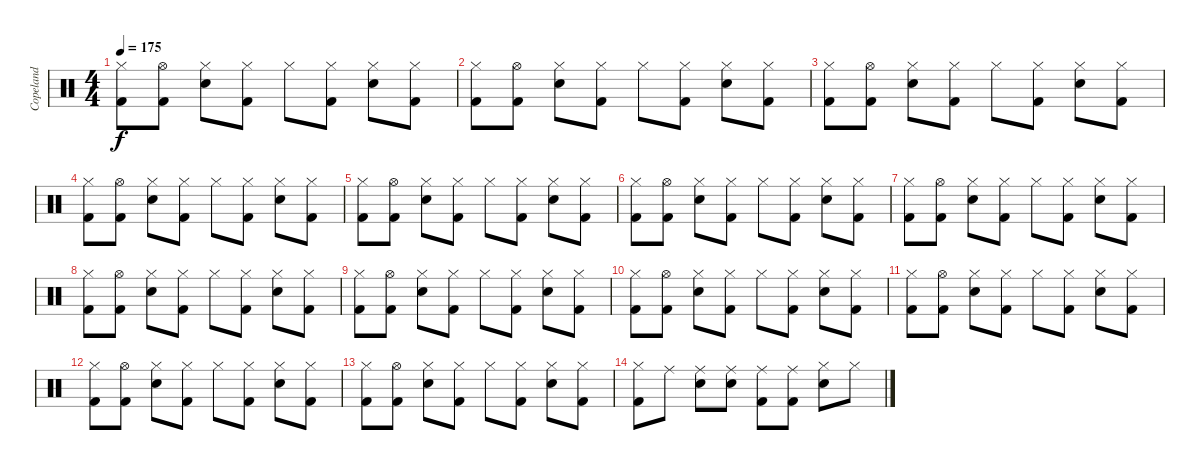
\track ("Copeland" "Copeland") {instrument percussion}
\staff {score}
\articulation defaults
\ts (4 4)
\tempo 175
\clef neutral
\ks c
("Hi-Hat (closed)" "Kick (hit) 2").8{dy f} ("Hi-Hat (open)" "Kick (hit) 2").8 ("Hi-Hat (closed)" "Snare (hit) 2").8 ("Hi-Hat (closed)" "Kick (hit) 2").8 "Hi-Hat (closed)".8 ("Hi-Hat (closed)" "Kick (hit) 2").8 ("Hi-Hat (closed)" "Snare (hit) 2").8 ("Hi-Hat (closed)" "Kick (hit) 2").8 |
("Hi-Hat (closed)" "Kick (hit) 2").8 ("Hi-Hat (open)" "Kick (hit) 2").8 ("Hi-Hat (closed)" "Snare (hit) 2").8 ("Hi-Hat (closed)" "Kick (hit) 2").8 "Hi-Hat (closed)".8 ("Hi-Hat (closed)" "Kick (hit) 2").8 ("Hi-Hat (closed)" "Snare (hit) 2").8 ("Hi-Hat (closed)" "Kick (hit) 2").8 |
("Hi-Hat (closed)" "Kick (hit) 2").8 ("Hi-Hat (open)" "Kick (hit) 2").8 ("Hi-Hat (closed)" "Snare (hit) 2").8 ("Hi-Hat (closed)" "Kick (hit) 2").8 "Hi-Hat (closed)".8 ("Hi-Hat (closed)" "Kick (hit) 2").8 ("Hi-Hat (closed)" "Snare (hit) 2").8 ("Hi-Hat (closed)" "Kick (hit) 2").8 |
("Hi-Hat (closed)" "Kick (hit) 2").8 ("Hi-Hat (open)" "Kick (hit) 2").8 ("Hi-Hat (closed)" "Snare (hit) 2").8 ("Hi-Hat (closed)" "Kick (hit) 2").8 "Hi-Hat (closed)".8 ("Hi-Hat (closed)" "Kick (hit) 2").8 ("Hi-Hat (closed)" "Snare (hit) 2").8 ("Hi-Hat (closed)" "Kick (hit) 2").8 |
("Hi-Hat (closed)" "Kick (hit) 2").8 ("Hi-Hat (open)" "Kick (hit) 2").8 ("Hi-Hat (closed)" "Snare (hit) 2").8 ("Hi-Hat (closed)" "Kick (hit) 2").8 "Hi-Hat (closed)".8 ("Hi-Hat (closed)" "Kick (hit) 2").8 ("Hi-Hat (closed)" "Snare (hit) 2").8 ("Hi-Hat (closed)" "Kick (hit) 2").8 |
("Hi-Hat (closed)" "Kick (hit) 2").8 ("Hi-Hat (open)" "Kick (hit) 2").8 ("Hi-Hat (closed)" "Snare (hit) 2").8 ("Hi-Hat (closed)" "Kick (hit) 2").8 "Hi-Hat (closed)".8 ("Hi-Hat (closed)" "Kick (hit) 2").8 ("Hi-Hat (closed)" "Snare (hit) 2").8 ("Hi-Hat (closed)" "Kick (hit) 2").8 |
("Hi-Hat (closed)" "Kick (hit) 2").8 ("Hi-Hat (open)" "Kick (hit) 2").8 ("Hi-Hat (closed)" "Snare (hit) 2").8 ("Hi-Hat (closed)" "Kick (hit) 2").8 "Hi-Hat (closed)".8 ("Hi-Hat (closed)" "Kick (hit) 2").8 ("Hi-Hat (closed)" "Snare (hit) 2").8 ("Hi-Hat (closed)" "Kick (hit) 2").8 |
("Hi-Hat (closed)" "Kick (hit) 2").8 ("Hi-Hat (open)" "Kick (hit) 2").8 ("Hi-Hat (closed)" "Snare (hit) 2").8 ("Hi-Hat (closed)" "Kick (hit) 2").8 "Hi-Hat (closed)".8 ("Hi-Hat (closed)" "Kick (hit) 2").8 ("Hi-Hat (closed)" "Snare (hit) 2").8 ("Hi-Hat (closed)" "Kick (hit) 2").8 |
("Hi-Hat (closed)" "Kick (hit) 2").8 ("Hi-Hat (open)" "Kick (hit) 2").8 ("Hi-Hat (closed)" "Snare (hit) 2").8 ("Hi-Hat (closed)" "Kick (hit) 2").8 "Hi-Hat (closed)".8 ("Hi-Hat (closed)" "Kick (hit) 2").8 ("Hi-Hat (closed)" "Snare (hit) 2").8 ("Hi-Hat (closed)" "Kick (hit) 2").8 |
("Hi-Hat (closed)" "Kick (hit) 2").8 ("Hi-Hat (open)" "Kick (hit) 2").8 ("Hi-Hat (closed)" "Snare (hit) 2").8 ("Hi-Hat (closed)" "Kick (hit) 2").8 "Hi-Hat (closed)".8 ("Hi-Hat (closed)" "Kick (hit) 2").8 ("Hi-Hat (closed)" "Snare (hit) 2").8 ("Hi-Hat (closed)" "Kick (hit) 2").8 |
("Hi-Hat (closed)" "Kick (hit) 2").8 ("Hi-Hat (open)" "Kick (hit) 2").8 ("Hi-Hat (closed)" "Snare (hit) 2").8 ("Hi-Hat (closed)" "Kick (hit) 2").8 "Hi-Hat (closed)".8 ("Hi-Hat (closed)" "Kick (hit) 2").8 ("Hi-Hat (closed)" "Snare (hit) 2").8 ("Hi-Hat (closed)" "Kick (hit) 2").8 |
("Hi-Hat (closed)" "Kick (hit) 2").8 ("Hi-Hat (open)" "Kick (hit) 2").8 ("Hi-Hat (closed)" "Snare (hit) 2").8 ("Hi-Hat (closed)" "Kick (hit) 2").8 "Hi-Hat (closed)".8 ("Hi-Hat (closed)" "Kick (hit) 2").8 ("Hi-Hat (closed)" "Snare (hit) 2").8 ("Hi-Hat (closed)" "Kick (hit) 2").8 |
("Hi-Hat (closed)" "Kick (hit) 2").8 ("Hi-Hat (open)" "Kick (hit) 2").8 ("Hi-Hat (closed)" "Snare (hit) 2").8 ("Hi-Hat (closed)" "Kick (hit) 2").8 "Hi-Hat (closed)".8 ("Hi-Hat (closed)" "Kick (hit) 2").8 ("Hi-Hat (closed)" "Snare (hit) 2").8 ("Hi-Hat (closed)" "Kick (hit) 2").8 |
("Hi-Hat (closed)" "Kick (hit) 2").8 "Ride (middle)".8 ("Ride (middle)" "Snare (hit) 2").8 ("Ride (middle)" "Snare (hit) 2").8 ("Ride (middle)" "Kick (hit) 2").8 ("Ride (middle)" "Kick (hit) 2").8 ("Hi-Hat (closed)" "Snare (hit) 2").8 "Hi-Hat (closed)".8
